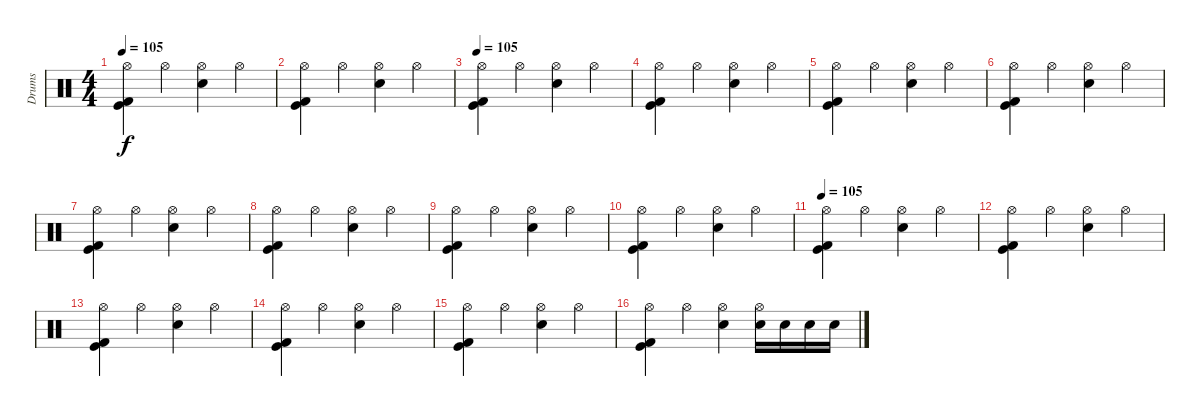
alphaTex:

\track ("Drums" "Drums") {instrument percussion}
\staff {score}
\articulation defaults
\ts (4 4)
\tempo 105
\clef neutral
\ks c
("Hi-Hat (open)" "Kick (hit)" "Kick (hit) 2").4{dy f} "Hi-Hat (open)".4 ("Hi-Hat (open)" "Snare (hit) 2").4 "Hi-Hat (open)".4 |
("Hi-Hat (open)" "Kick (hit)" "Kick (hit) 2").4 "Hi-Hat (open)".4 ("Hi-Hat (open)" "Snare (hit) 2").4 "Hi-Hat (open)".4 |
\tempo 105
("Hi-Hat (open)" "Kick (hit)" "Kick (hit) 2").4 "Hi-Hat (open)".4 ("Hi-Hat (open)" "Snare (hit) 2").4 "Hi-Hat (open)".4 |
("Hi-Hat (open)" "Kick (hit)" "Kick (hit) 2").4 "Hi-Hat (open)".4 ("Hi-Hat (open)" "Snare (hit) 2").4 "Hi-Hat (open)".4 |
("Hi-Hat (open)" "Kick (hit)" "Kick (hit) 2").4 "Hi-Hat (open)".4 ("Hi-Hat (open)" "Snare (hit) 2").4 "Hi-Hat (open)".4 |
("Hi-Hat (open)" "Kick (hit)" "Kick (hit) 2").4 "Hi-Hat (open)".4 ("Hi-Hat (open)" "Snare (hit) 2").4 "Hi-Hat (open)".4 |
("Hi-Hat (open)" "Kick (hit)" "Kick (hit) 2").4 "Hi-Hat (open)".4 ("Hi-Hat (open)" "Snare (hit) 2").4 "Hi-Hat (open)".4 |
("Hi-Hat (open)" "Kick (hit)" "Kick (hit) 2").4 "Hi-Hat (open)".4 ("Hi-Hat (open)" "Snare (hit) 2").4 "Hi-Hat (open)".4 |
("Hi-Hat (open)" "Kick (hit)" "Kick (hit) 2").4 "Hi-Hat (open)".4 ("Hi-Hat (open)" "Snare (hit) 2").4 "Hi-Hat (open)".4 |
("Hi-Hat (open)" "Kick (hit)" "Kick (hit) 2").4 "Hi-Hat (open)".4 ("Hi-Hat (open)" "Snare (hit) 2").4 "Hi-Hat (open)".4 |
\tempo 105
("Hi-Hat (open)" "Kick (hit)" "Kick (hit) 2").4 "Hi-Hat (open)".4 ("Hi-Hat (open)" "Snare (hit) 2").4 "Hi-Hat (open)".4 |
("Hi-Hat (open)" "Kick (hit)" "Kick (hit) 2").4 "Hi-Hat (open)".4 ("Hi-Hat (open)" "Snare (hit) 2").4 "Hi-Hat (open)".4 |
("Hi-Hat (open)" "Kick (hit)" "Kick (hit) 2").4 "Hi-Hat (open)".4 ("Hi-Hat (open)" "Snare (hit) 2").4 "Hi-Hat (open)".4 |
("Hi-Hat (open)" "Kick (hit)" "Kick (hit) 2").4 "Hi-Hat (open)".4 ("Hi-Hat (open)" "Snare (hit) 2").4 "Hi-Hat (open)".4 |
("Hi-Hat (open)" "Kick (hit)" "Kick (hit) 2").4 "Hi-Hat (open)".4 ("Hi-Hat (open)" "Snare (hit) 2").4 "Hi-Hat (open)".4 |
("Hi-Hat (open)" "Kick (hit)" "Kick (hit) 2").4 "Hi-Hat (open)".4 ("Hi-Hat (open)" "Snare (hit) 2").4 ("Hi-Hat (open)" "Snare (hit) 2").16 "Snare (hit) 2".16 "Snare (hit) 2".16 "Snare (hit) 2".16
